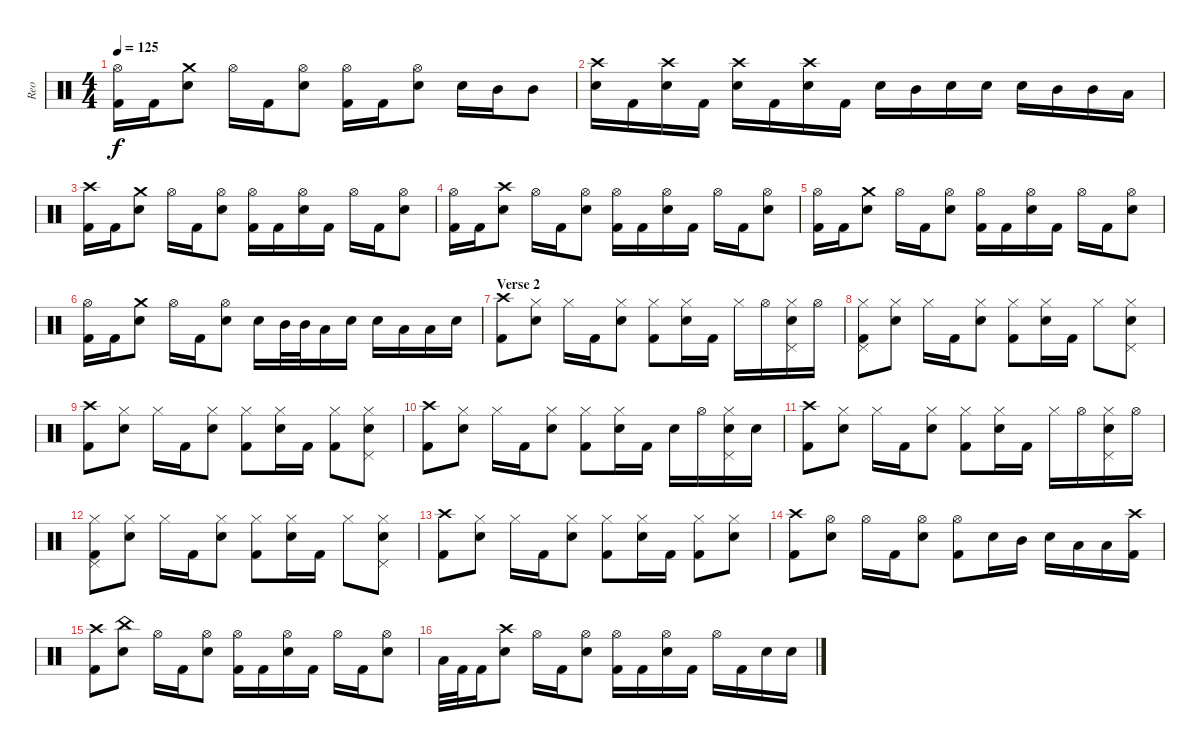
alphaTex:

\track ("Reo" "Reo") {instrument percussion}
\staff {score}
\articulation defaults
\ts (4 4)
\tempo 125
\clef neutral
\ks c
("Hi-Hat (open)" "Kick (hit) 2").16{dy f} "Kick (hit) 2".16 ("Crash medium (hit)" "Electric Snare (hit)").8 "Hi-Hat (open)".16 "Kick (hit) 2".16 ("Hi-Hat (open)" "Electric Snare (hit)").8 ("Hi-Hat (open)" "Kick (hit) 2").16 "Kick (hit) 2".16 ("Hi-Hat (open)" "Electric Snare (hit)").8 "Electric Snare (hit)".16 "Mid Tom (hit)".16 "Mid Tom (hit)".8 |
("Crash high (hit)" "Electric Snare (hit)").16 "Kick (hit) 2".16 ("Crash high (hit)" "Electric Snare (hit)").16 "Kick (hit) 2".16 ("Crash high (hit)" "Electric Snare (hit)").16 "Kick (hit) 2".16 ("Crash high (hit)" "Electric Snare (hit)").16 "Kick (hit) 2".16 "Electric Snare (hit)".16 "Mid Tom (hit)".16 "Electric Snare (hit)".16 "Electric Snare (hit)".16 "Electric Snare (hit)".16 "Mid Tom (hit)".16 "Mid Tom (hit)".16 "Low Tom (hit)".16 |
("Crash high (hit)" "Kick (hit) 2").16 "Kick (hit) 2".16 ("Crash medium (hit)" "Electric Snare (hit)").8 "Hi-Hat (open)".16 "Kick (hit) 2".16 ("Hi-Hat (open)" "Electric Snare (hit)").8 ("Hi-Hat (open)" "Kick (hit) 2").16 "Kick (hit) 2".16 ("Hi-Hat (open)" "Electric Snare (hit)").16 "Kick (hit) 2".16 "Hi-Hat (open)".16 "Kick (hit) 2".16 ("Hi-Hat (open)" "Electric Snare (hit)").8 |
("Hi-Hat (open)" "Kick (hit) 2").16 "Kick (hit) 2".16 ("Crash high (hit)" "Electric Snare (hit)").8 "Hi-Hat (open)".16 "Kick (hit) 2".16 ("Hi-Hat (open)" "Electric Snare (hit)").8 ("Hi-Hat (open)" "Kick (hit) 2").16 "Kick (hit) 2".16 ("Hi-Hat (open)" "Electric Snare (hit)").16 "Kick (hit) 2".16 "Hi-Hat (open)".16 "Kick (hit) 2".16 ("Hi-Hat (open)" "Electric Snare (hit)").8 |
("Hi-Hat (open)" "Kick (hit) 2").16 "Kick (hit) 2".16 ("Crash medium (hit)" "Electric Snare (hit)").8 "Hi-Hat (open)".16 "Kick (hit) 2".16 ("Hi-Hat (open)" "Electric Snare (hit)").8 ("Hi-Hat (open)" "Kick (hit) 2").16 "Kick (hit) 2".16 ("Hi-Hat (open)" "Electric Snare (hit)").16 "Kick (hit) 2".16 "Hi-Hat (open)".16 "Kick (hit) 2".16 ("Hi-Hat (open)" "Electric Snare (hit)").8 |
("Hi-Hat (open)" "Kick (hit) 2").16 "Kick (hit) 2".16 ("Crash medium (hit)" "Electric Snare (hit)").8 "Hi-Hat (open)".16 "Kick (hit) 2".16 ("Hi-Hat (open)" "Electric Snare (hit)").8 "Electric Snare (hit)".16 "Mid Tom (hit)".32 "Mid Tom (hit)".32 "Low Tom (hit)".16 "Electric Snare (hit)".16 "Electric Snare (hit)".16 "Low Tom (hit)".16 "Low Tom (hit)".16 "Electric Snare (hit)".16 |
\section ("" "Verse 2")
("Crash high (hit)" "Kick (hit) 2").8 ("Hi-Hat (closed)" "Electric Snare (hit)").8 "Hi-Hat (closed)".16 "Kick (hit) 2".16 ("Hi-Hat (closed)" "Electric Snare (hit)").8 ("Hi-Hat (closed)" "Kick (hit) 2").8 ("Hi-Hat (closed)" "Electric Snare (hit)").16 "Kick (hit) 2".16 "Hi-Hat (closed)".16 "Hi-Hat (open)".16 ("Hi-Hat (closed)" "Electric Snare (hit)" "Pedal Hi-Hat (hit)").16 "Hi-Hat (open)".16 |
("Hi-Hat (closed)" "Pedal Hi-Hat (hit)" "Kick (hit) 2").8 ("Hi-Hat (closed)" "Electric Snare (hit)").8 "Hi-Hat (closed)".16 "Kick (hit) 2".16 ("Hi-Hat (closed)" "Electric Snare (hit)").8 ("Hi-Hat (closed)" "Kick (hit) 2").8 ("Hi-Hat (closed)" "Electric Snare (hit)").16 "Kick (hit) 2".16 "Hi-Hat (closed)".8 ("Hi-Hat (closed)" "Electric Snare (hit)" "Pedal Hi-Hat (hit)").8 |
("Crash high (hit)" "Kick (hit) 2").8 ("Hi-Hat (closed)" "Electric Snare (hit)").8 "Hi-Hat (closed)".16 "Kick (hit) 2".16 ("Hi-Hat (closed)" "Electric Snare (hit)").8 ("Hi-Hat (closed)" "Kick (hit) 2").8 ("Hi-Hat (closed)" "Electric Snare (hit)").16 "Kick (hit) 2".16 ("Hi-Hat (closed)" "Kick (hit) 2").8 ("Hi-Hat (closed)" "Electric Snare (hit)" "Pedal Hi-Hat (hit)").8 |
("Crash high (hit)" "Kick (hit) 2").8 ("Hi-Hat (closed)" "Electric Snare (hit)").8 "Hi-Hat (closed)".16 "Kick (hit) 2".16 ("Hi-Hat (closed)" "Electric Snare (hit)").8 ("Hi-Hat (closed)" "Kick (hit) 2").8 ("Hi-Hat (closed)" "Electric Snare (hit)").16 "Kick (hit) 2".16 "Electric Snare (hit)".16 "Hi-Hat (open)".16 ("Hi-Hat (closed)" "Electric Snare (hit)" "Pedal Hi-Hat (hit)").16 "Electric Snare (hit)".16 |
("Crash high (hit)" "Kick (hit) 2").8 ("Hi-Hat (closed)" "Electric Snare (hit)").8 "Hi-Hat (closed)".16 "Kick (hit) 2".16 ("Hi-Hat (closed)" "Electric Snare (hit)").8 ("Hi-Hat (closed)" "Kick (hit) 2").8 ("Hi-Hat (closed)" "Electric Snare (hit)").16 "Kick (hit) 2".16 "Hi-Hat (closed)".16 "Hi-Hat (open)".16 ("Hi-Hat (closed)" "Electric Snare (hit)" "Pedal Hi-Hat (hit)").16 "Hi-Hat (open)".16 |
("Hi-Hat (closed)" "Pedal Hi-Hat (hit)" "Kick (hit) 2").8 ("Hi-Hat (closed)" "Electric Snare (hit)").8 "Hi-Hat (closed)".16 "Kick (hit) 2".16 ("Hi-Hat (closed)" "Electric Snare (hit)").8 ("Hi-Hat (closed)" "Kick (hit) 2").8 ("Hi-Hat (closed)" "Electric Snare (hit)").16 "Kick (hit) 2".16 "Hi-Hat (closed)".8 ("Hi-Hat (closed)" "Electric Snare (hit)" "Pedal Hi-Hat (hit)").8 |
("Crash high (hit)" "Kick (hit) 2").8 ("Hi-Hat (closed)" "Electric Snare (hit)").8 "Hi-Hat (closed)".16 "Kick (hit) 2".16 ("Hi-Hat (closed)" "Electric Snare (hit)").8 ("Hi-Hat (closed)" "Kick (hit) 2").8 ("Hi-Hat (closed)" "Electric Snare (hit)").16 "Kick (hit) 2".16 ("Hi-Hat (closed)" "Kick (hit) 2").8 ("Hi-Hat (closed)" "Electric Snare (hit)").8 |
("Crash high (hit)" "Kick (hit) 2").8 ("Hi-Hat (open)" "Electric Snare (hit)").8 "Hi-Hat (open)".16 "Kick (hit) 2".16 ("Hi-Hat (open)" "Electric Snare (hit)").8 ("Hi-Hat (open)" "Kick (hit) 2").8 "Electric Snare (hit)".16 "Mid Tom (hit)".16 "Electric Snare (hit)".16 "Low Tom (hit)".16 "Low Tom (hit)".16 ("Crash high (hit)" "Kick (hit) 2").16 |
("Crash high (hit)" "Kick (hit) 2").8 ("China (hit)" "Electric Snare (hit)").8 "Hi-Hat (open)".16 "Kick (hit) 2".16 ("Hi-Hat (open)" "Electric Snare (hit)").8 ("Hi-Hat (open)" "Kick (hit) 2").16 "Kick (hit) 2".16 ("Hi-Hat (open)" "Electric Snare (hit)").16 "Kick (hit) 2".16 "Hi-Hat (open)".16 "Kick (hit) 2".16 ("Hi-Hat (open)" "Electric Snare (hit)").8 |
"Low Tom (hit)".32 "Kick (hit) 2".32 "Kick (hit) 2".16 ("Crash high (hit)" "Electric Snare (hit)").8 "Hi-Hat (open)".16 "Kick (hit) 2".16 ("Hi-Hat (open)" "Electric Snare (hit)").8 ("Hi-Hat (open)" "Kick (hit) 2").16 "Kick (hit) 2".16 ("Hi-Hat (open)" "Electric Snare (hit)").16 "Kick (hit) 2".16 "Hi-Hat (open)".16 "Kick (hit) 2".16 "Electric Snare (hit)".16 "Electric Snare (hit)".16
